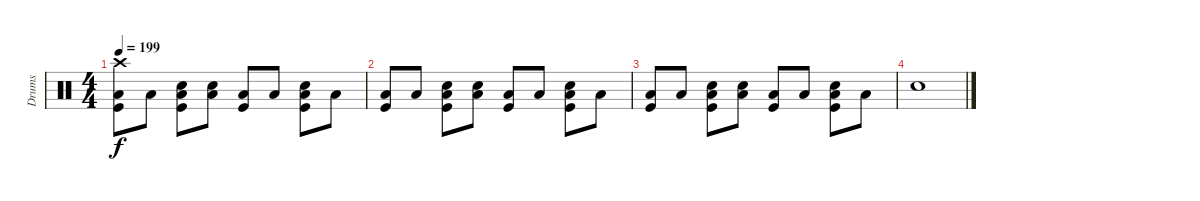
\track ("Drums" "Drums") {instrument percussion}
\staff {score}
\articulation defaults
\ts (4 4)
\tempo 199
\clef neutral
\ks c
("Low Tom (hit)" "Kick (hit)" "Crash high (hit)").8{dy f} "Low Tom (hit)".8 ("Low Tom (hit)" "Kick (hit)" "Snare (hit) 2").8 ("Low Tom (hit)" "Snare (hit) 2").8 ("Low Tom (hit)" "Kick (hit)").8 "Low Tom (hit)".8 ("Low Tom (hit)" "Kick (hit)" "Snare (hit) 2").8 "Low Tom (hit)".8 |
("Low Tom (hit)" "Kick (hit)").8 "Low Tom (hit)".8 ("Low Tom (hit)" "Kick (hit)" "Snare (hit) 2").8 ("Low Tom (hit)" "Snare (hit) 2").8 ("Low Tom (hit)" "Kick (hit)").8 "Low Tom (hit)".8 ("Low Tom (hit)" "Kick (hit)" "Snare (hit) 2").8 "Low Tom (hit)".8 |
("Low Tom (hit)" "Kick (hit)").8 "Low Tom (hit)".8 ("Low Tom (hit)" "Kick (hit)" "Snare (hit) 2").8 ("Low Tom (hit)" "Snare (hit) 2").8 ("Low Tom (hit)" "Kick (hit)").8 "Low Tom (hit)".8 ("Low Tom (hit)" "Kick (hit)" "Snare (hit) 2").8 "Low Tom (hit)".8 |
"Snare (hit) 2".1
